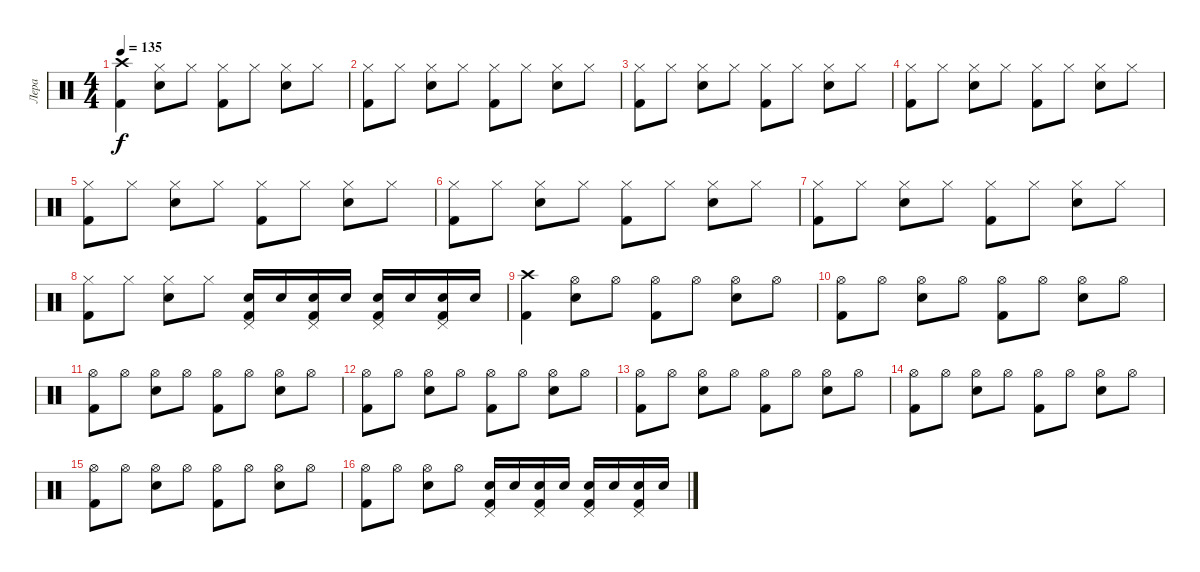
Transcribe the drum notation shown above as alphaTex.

\track ("Лера" "Лера") {instrument percussion}
\staff {score}
\articulation defaults
\ts (4 4)
\tempo 135
\clef neutral
\ks c
("Crash high (hit)" "Kick (hit) 2").4{dy f} ("Hi-Hat (closed)" "Electric Snare (hit)").8 "Hi-Hat (closed)".8 ("Hi-Hat (closed)" "Kick (hit) 2").8 "Hi-Hat (closed)".8 ("Hi-Hat (closed)" "Electric Snare (hit)").8 "Hi-Hat (closed)".8 |
("Hi-Hat (closed)" "Kick (hit) 2").8 "Hi-Hat (closed)".8 ("Hi-Hat (closed)" "Electric Snare (hit)").8 "Hi-Hat (closed)".8 ("Hi-Hat (closed)" "Kick (hit) 2").8 "Hi-Hat (closed)".8 ("Hi-Hat (closed)" "Electric Snare (hit)").8 "Hi-Hat (closed)".8 |
("Hi-Hat (closed)" "Kick (hit) 2").8 "Hi-Hat (closed)".8 ("Hi-Hat (closed)" "Electric Snare (hit)").8 "Hi-Hat (closed)".8 ("Hi-Hat (closed)" "Kick (hit) 2").8 "Hi-Hat (closed)".8 ("Hi-Hat (closed)" "Electric Snare (hit)").8 "Hi-Hat (closed)".8 |
("Hi-Hat (closed)" "Kick (hit) 2").8 "Hi-Hat (closed)".8 ("Hi-Hat (closed)" "Electric Snare (hit)").8 "Hi-Hat (closed)".8 ("Hi-Hat (closed)" "Kick (hit) 2").8 "Hi-Hat (closed)".8 ("Hi-Hat (closed)" "Electric Snare (hit)").8 "Hi-Hat (closed)".8 |
("Hi-Hat (closed)" "Kick (hit) 2").8 "Hi-Hat (closed)".8 ("Hi-Hat (closed)" "Electric Snare (hit)").8 "Hi-Hat (closed)".8 ("Hi-Hat (closed)" "Kick (hit) 2").8 "Hi-Hat (closed)".8 ("Hi-Hat (closed)" "Electric Snare (hit)").8 "Hi-Hat (closed)".8 |
("Hi-Hat (closed)" "Kick (hit) 2").8 "Hi-Hat (closed)".8 ("Hi-Hat (closed)" "Electric Snare (hit)").8 "Hi-Hat (closed)".8 ("Hi-Hat (closed)" "Kick (hit) 2").8 "Hi-Hat (closed)".8 ("Hi-Hat (closed)" "Electric Snare (hit)").8 "Hi-Hat (closed)".8 |
("Hi-Hat (closed)" "Kick (hit) 2").8 "Hi-Hat (closed)".8 ("Hi-Hat (closed)" "Electric Snare (hit)").8 "Hi-Hat (closed)".8 ("Hi-Hat (closed)" "Kick (hit) 2").8 "Hi-Hat (closed)".8 ("Hi-Hat (closed)" "Electric Snare (hit)").8 "Hi-Hat (closed)".8 |
("Hi-Hat (closed)" "Kick (hit) 2").8 "Hi-Hat (closed)".8 ("Hi-Hat (closed)" "Electric Snare (hit)").8 "Hi-Hat (closed)".8 ("Electric Snare (hit)" "Kick (hit) 2" "Pedal Hi-Hat (hit)").16 "Electric Snare (hit)".16 ("Electric Snare (hit)" "Kick (hit) 2" "Pedal Hi-Hat (hit)").16 "Electric Snare (hit)".16 ("Electric Snare (hit)" "Kick (hit) 2" "Pedal Hi-Hat (hit)").16 "Electric Snare (hit)".16 ("Electric Snare (hit)" "Kick (hit) 2" "Pedal Hi-Hat (hit)").16 "Electric Snare (hit)".16 |
("Crash high (hit)" "Kick (hit) 2").4 ("Hi-Hat (open)" "Electric Snare (hit)").8 "Hi-Hat (open)".8 ("Hi-Hat (open)" "Kick (hit) 2").8 "Hi-Hat (open)".8 ("Hi-Hat (open)" "Electric Snare (hit)").8 "Hi-Hat (open)".8 |
("Hi-Hat (open)" "Kick (hit) 2").8 "Hi-Hat (open)".8 ("Hi-Hat (open)" "Electric Snare (hit)").8 "Hi-Hat (open)".8 ("Hi-Hat (open)" "Kick (hit) 2").8 "Hi-Hat (open)".8 ("Hi-Hat (open)" "Electric Snare (hit)").8 "Hi-Hat (open)".8 |
("Hi-Hat (open)" "Kick (hit) 2").8 "Hi-Hat (open)".8 ("Hi-Hat (open)" "Electric Snare (hit)").8 "Hi-Hat (open)".8 ("Hi-Hat (open)" "Kick (hit) 2").8 "Hi-Hat (open)".8 ("Hi-Hat (open)" "Electric Snare (hit)").8 "Hi-Hat (open)".8 |
("Hi-Hat (open)" "Kick (hit) 2").8 "Hi-Hat (open)".8 ("Hi-Hat (open)" "Electric Snare (hit)").8 "Hi-Hat (open)".8 ("Hi-Hat (open)" "Kick (hit) 2").8 "Hi-Hat (open)".8 ("Hi-Hat (open)" "Electric Snare (hit)").8 "Hi-Hat (open)".8 |
("Hi-Hat (open)" "Kick (hit) 2").8 "Hi-Hat (open)".8 ("Hi-Hat (open)" "Electric Snare (hit)").8 "Hi-Hat (open)".8 ("Hi-Hat (open)" "Kick (hit) 2").8 "Hi-Hat (open)".8 ("Hi-Hat (open)" "Electric Snare (hit)").8 "Hi-Hat (open)".8 |
("Hi-Hat (open)" "Kick (hit) 2").8 "Hi-Hat (open)".8 ("Hi-Hat (open)" "Electric Snare (hit)").8 "Hi-Hat (open)".8 ("Hi-Hat (open)" "Kick (hit) 2").8 "Hi-Hat (open)".8 ("Hi-Hat (open)" "Electric Snare (hit)").8 "Hi-Hat (open)".8 |
("Hi-Hat (open)" "Kick (hit) 2").8 "Hi-Hat (open)".8 ("Hi-Hat (open)" "Electric Snare (hit)").8 "Hi-Hat (open)".8 ("Hi-Hat (open)" "Kick (hit) 2").8 "Hi-Hat (open)".8 ("Hi-Hat (open)" "Electric Snare (hit)").8 "Hi-Hat (open)".8 |
("Hi-Hat (open)" "Kick (hit) 2").8 "Hi-Hat (open)".8 ("Hi-Hat (open)" "Electric Snare (hit)").8 "Hi-Hat (open)".8 ("Electric Snare (hit)" "Kick (hit) 2" "Pedal Hi-Hat (hit)").16 "Electric Snare (hit)".16 ("Electric Snare (hit)" "Kick (hit) 2" "Pedal Hi-Hat (hit)").16 "Electric Snare (hit)".16 ("Electric Snare (hit)" "Kick (hit) 2" "Pedal Hi-Hat (hit)").16 "Electric Snare (hit)".16 ("Electric Snare (hit)" "Kick (hit) 2" "Pedal Hi-Hat (hit)").16 "Electric Snare (hit)".16
